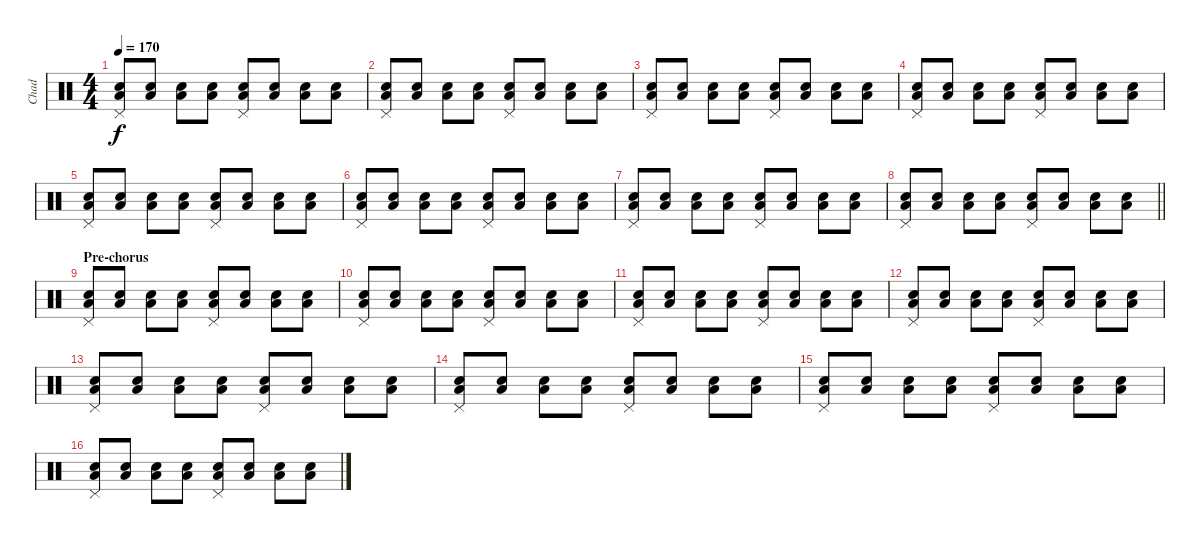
\track ("Chad" "Chad") {instrument percussion}
\staff {score}
\articulation defaults
\ts (4 4)
\tempo 170
\clef neutral
\ks c
("Pedal Hi-Hat (hit)" "Snare (hit) 2" "Low Tom (hit)").8{dy f} ("Snare (hit) 2" "Low Tom (hit)").8 ("Snare (hit) 2" "Low Tom (hit)").8 ("Snare (hit) 2" "Low Tom (hit)").8 ("Pedal Hi-Hat (hit)" "Snare (hit) 2" "Low Tom (hit)").8 ("Snare (hit) 2" "Low Tom (hit)").8 ("Snare (hit) 2" "Low Tom (hit)").8 ("Snare (hit) 2" "Low Tom (hit)").8 |
("Pedal Hi-Hat (hit)" "Snare (hit) 2" "Low Tom (hit)").8 ("Snare (hit) 2" "Low Tom (hit)").8 ("Snare (hit) 2" "Low Tom (hit)").8 ("Snare (hit) 2" "Low Tom (hit)").8 ("Pedal Hi-Hat (hit)" "Snare (hit) 2" "Low Tom (hit)").8 ("Snare (hit) 2" "Low Tom (hit)").8 ("Snare (hit) 2" "Low Tom (hit)").8 ("Snare (hit) 2" "Low Tom (hit)").8 |
("Pedal Hi-Hat (hit)" "Snare (hit) 2" "Low Tom (hit)").8 ("Snare (hit) 2" "Low Tom (hit)").8 ("Snare (hit) 2" "Low Tom (hit)").8 ("Snare (hit) 2" "Low Tom (hit)").8 ("Pedal Hi-Hat (hit)" "Snare (hit) 2" "Low Tom (hit)").8 ("Snare (hit) 2" "Low Tom (hit)").8 ("Snare (hit) 2" "Low Tom (hit)").8 ("Snare (hit) 2" "Low Tom (hit)").8 |
("Pedal Hi-Hat (hit)" "Snare (hit) 2" "Low Tom (hit)").8 ("Snare (hit) 2" "Low Tom (hit)").8 ("Snare (hit) 2" "Low Tom (hit)").8 ("Snare (hit) 2" "Low Tom (hit)").8 ("Pedal Hi-Hat (hit)" "Snare (hit) 2" "Low Tom (hit)").8 ("Snare (hit) 2" "Low Tom (hit)").8 ("Snare (hit) 2" "Low Tom (hit)").8 ("Snare (hit) 2" "Low Tom (hit)").8 |
("Pedal Hi-Hat (hit)" "Snare (hit) 2" "Low Tom (hit)").8 ("Snare (hit) 2" "Low Tom (hit)").8 ("Snare (hit) 2" "Low Tom (hit)").8 ("Snare (hit) 2" "Low Tom (hit)").8 ("Pedal Hi-Hat (hit)" "Snare (hit) 2" "Low Tom (hit)").8 ("Snare (hit) 2" "Low Tom (hit)").8 ("Snare (hit) 2" "Low Tom (hit)").8 ("Snare (hit) 2" "Low Tom (hit)").8 |
("Pedal Hi-Hat (hit)" "Snare (hit) 2" "Low Tom (hit)").8 ("Snare (hit) 2" "Low Tom (hit)").8 ("Snare (hit) 2" "Low Tom (hit)").8 ("Snare (hit) 2" "Low Tom (hit)").8 ("Pedal Hi-Hat (hit)" "Snare (hit) 2" "Low Tom (hit)").8 ("Snare (hit) 2" "Low Tom (hit)").8 ("Snare (hit) 2" "Low Tom (hit)").8 ("Snare (hit) 2" "Low Tom (hit)").8 |
("Pedal Hi-Hat (hit)" "Snare (hit) 2" "Low Tom (hit)").8 ("Snare (hit) 2" "Low Tom (hit)").8 ("Snare (hit) 2" "Low Tom (hit)").8 ("Snare (hit) 2" "Low Tom (hit)").8 ("Pedal Hi-Hat (hit)" "Snare (hit) 2" "Low Tom (hit)").8 ("Snare (hit) 2" "Low Tom (hit)").8 ("Snare (hit) 2" "Low Tom (hit)").8 ("Snare (hit) 2" "Low Tom (hit)").8 |
\barLineRight lightlight
("Pedal Hi-Hat (hit)" "Snare (hit) 2" "Low Tom (hit)").8 ("Snare (hit) 2" "Low Tom (hit)").8 ("Snare (hit) 2" "Low Tom (hit)").8 ("Snare (hit) 2" "Low Tom (hit)").8 ("Pedal Hi-Hat (hit)" "Snare (hit) 2" "Low Tom (hit)").8 ("Snare (hit) 2" "Low Tom (hit)").8 ("Snare (hit) 2" "Low Tom (hit)").8 ("Snare (hit) 2" "Low Tom (hit)").8 |
\section ("" "Pre-chorus")
("Pedal Hi-Hat (hit)" "Snare (hit) 2" "Low Tom (hit)").8 ("Snare (hit) 2" "Low Tom (hit)").8 ("Snare (hit) 2" "Low Tom (hit)").8 ("Snare (hit) 2" "Low Tom (hit)").8 ("Pedal Hi-Hat (hit)" "Snare (hit) 2" "Low Tom (hit)").8 ("Snare (hit) 2" "Low Tom (hit)").8 ("Snare (hit) 2" "Low Tom (hit)").8 ("Snare (hit) 2" "Low Tom (hit)").8 |
("Pedal Hi-Hat (hit)" "Snare (hit) 2" "Low Tom (hit)").8 ("Snare (hit) 2" "Low Tom (hit)").8 ("Snare (hit) 2" "Low Tom (hit)").8 ("Snare (hit) 2" "Low Tom (hit)").8 ("Pedal Hi-Hat (hit)" "Snare (hit) 2" "Low Tom (hit)").8 ("Snare (hit) 2" "Low Tom (hit)").8 ("Snare (hit) 2" "Low Tom (hit)").8 ("Snare (hit) 2" "Low Tom (hit)").8 |
("Pedal Hi-Hat (hit)" "Snare (hit) 2" "Low Tom (hit)").8 ("Snare (hit) 2" "Low Tom (hit)").8 ("Snare (hit) 2" "Low Tom (hit)").8 ("Snare (hit) 2" "Low Tom (hit)").8 ("Pedal Hi-Hat (hit)" "Snare (hit) 2" "Low Tom (hit)").8 ("Snare (hit) 2" "Low Tom (hit)").8 ("Snare (hit) 2" "Low Tom (hit)").8 ("Snare (hit) 2" "Low Tom (hit)").8 |
("Pedal Hi-Hat (hit)" "Snare (hit) 2" "Low Tom (hit)").8 ("Snare (hit) 2" "Low Tom (hit)").8 ("Snare (hit) 2" "Low Tom (hit)").8 ("Snare (hit) 2" "Low Tom (hit)").8 ("Pedal Hi-Hat (hit)" "Snare (hit) 2" "Low Tom (hit)").8 ("Snare (hit) 2" "Low Tom (hit)").8 ("Snare (hit) 2" "Low Tom (hit)").8 ("Snare (hit) 2" "Low Tom (hit)").8 |
("Pedal Hi-Hat (hit)" "Snare (hit) 2" "Low Tom (hit)").8 ("Snare (hit) 2" "Low Tom (hit)").8 ("Snare (hit) 2" "Low Tom (hit)").8 ("Snare (hit) 2" "Low Tom (hit)").8 ("Pedal Hi-Hat (hit)" "Snare (hit) 2" "Low Tom (hit)").8 ("Snare (hit) 2" "Low Tom (hit)").8 ("Snare (hit) 2" "Low Tom (hit)").8 ("Snare (hit) 2" "Low Tom (hit)").8 |
("Pedal Hi-Hat (hit)" "Snare (hit) 2" "Low Tom (hit)").8 ("Snare (hit) 2" "Low Tom (hit)").8 ("Snare (hit) 2" "Low Tom (hit)").8 ("Snare (hit) 2" "Low Tom (hit)").8 ("Pedal Hi-Hat (hit)" "Snare (hit) 2" "Low Tom (hit)").8 ("Snare (hit) 2" "Low Tom (hit)").8 ("Snare (hit) 2" "Low Tom (hit)").8 ("Snare (hit) 2" "Low Tom (hit)").8 |
("Pedal Hi-Hat (hit)" "Snare (hit) 2" "Low Tom (hit)").8 ("Snare (hit) 2" "Low Tom (hit)").8 ("Snare (hit) 2" "Low Tom (hit)").8 ("Snare (hit) 2" "Low Tom (hit)").8 ("Pedal Hi-Hat (hit)" "Snare (hit) 2" "Low Tom (hit)").8 ("Snare (hit) 2" "Low Tom (hit)").8 ("Snare (hit) 2" "Low Tom (hit)").8 ("Snare (hit) 2" "Low Tom (hit)").8 |
("Pedal Hi-Hat (hit)" "Snare (hit) 2" "Low Tom (hit)").8 ("Snare (hit) 2" "Low Tom (hit)").8 ("Snare (hit) 2" "Low Tom (hit)").8 ("Snare (hit) 2" "Low Tom (hit)").8 ("Pedal Hi-Hat (hit)" "Snare (hit) 2" "Low Tom (hit)").8 ("Snare (hit) 2" "Low Tom (hit)").8 ("Snare (hit) 2" "Low Tom (hit)").8 ("Snare (hit) 2" "Low Tom (hit)").8
